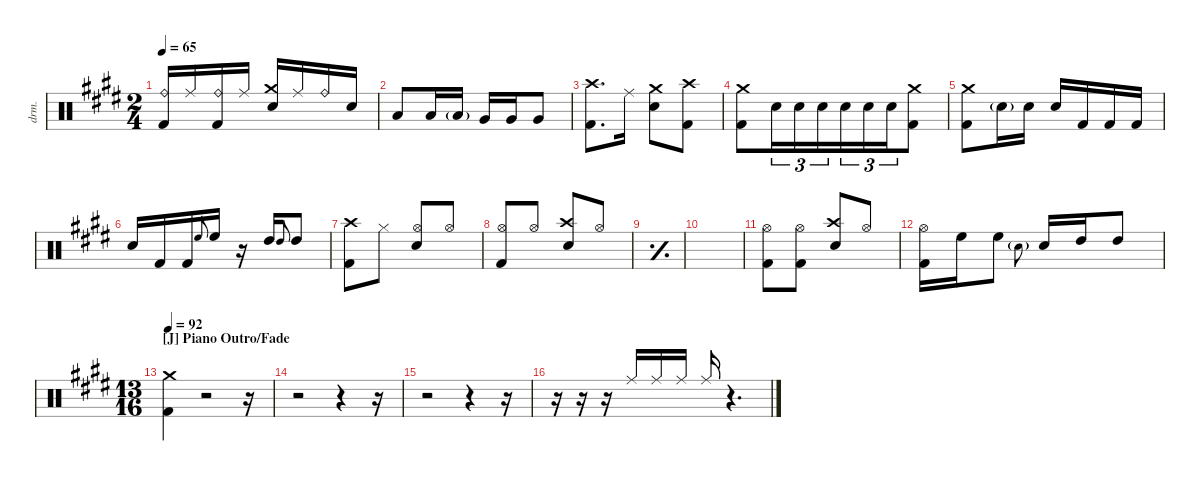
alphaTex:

\defaultSystemsLayout 4
\hideDynamics
\bracketExtendMode groupsimilarinstruments
\otherSystemsTrackNameOrientation horizontal
\chordDiagramsInScore
\track ("Drumkit" "drm.") {instrument percussion}
\staff {score}
\articulation defaults
\ts (2 4)
\tempo 65
\clef neutral
\ks e
("Ride (bell)"{acc forcenatural} "Kick (hit) 2"{acc forcenatural}).16{dy mf beam Up} "Ride (middle)"{acc forcenatural}.16{beam Up} ("Ride (bell)"{acc forcenatural} "Kick (hit) 2"{acc forcenatural}).16{beam Up} "Ride (middle)"{acc forcenatural}.16{beam Up} ("Crash medium (hit)"{acc forcenatural} "Snare (hit) 2"{acc forcenatural}).16{beam Up} "Ride (middle)"{acc forcenatural}.16{beam Up} "Ride (bell)"{acc forcenatural}.16{beam Up} "Snare (hit) 2"{acc forcenatural}.16{beam Up} |
"Low Tom (hit)"{acc forcenatural}.8 "Low Tom (hit)"{acc forcenatural}.16 "Low Tom (hit)"{g acc forcenatural}.16 "Very Low Tom (hit)"{acc forcenatural}.16 "Very Low Tom (hit)"{acc forcenatural}.16 "Very Low Tom (hit)"{acc forcenatural}.8 |
("Crash high (hit)"{acc forcenatural} "Kick (hit) 2"{acc forcenatural}).8{d} "Ride (middle)"{acc forcenatural}.16 ("Crash medium (hit)"{acc forcenatural} "Snare (hit) 2"{acc forcenatural}).8 ("Crash high (hit)"{acc forcenatural} "Kick (hit) 2"{acc forcenatural}).8 |
("Crash medium (hit)"{acc forcenatural} "Kick (hit) 2"{acc forcenatural}).8{beam merge} "Snare (hit) 2"{acc forcenatural}.16{tu (3 2) beam merge} "Snare (hit) 2"{acc forcenatural}.16{tu (3 2) beam merge} "Snare (hit) 2"{acc forcenatural}.16{tu (3 2) beam merge} "Snare (hit) 2"{acc forcenatural}.16{tu (3 2) beam merge} "Snare (hit) 2"{acc forcenatural}.16{tu (3 2) beam merge} "Snare (hit) 2"{acc forcenatural}.16{tu (3 2) beam merge} ("Kick (hit) 2"{acc forcenatural} "Crash medium (hit)"{acc forcenatural}).8 |
("Crash medium (hit)"{acc forcenatural} "Kick (hit) 2"{acc forcenatural}).8 "Snare (hit) 2"{g acc forcenatural}.16 "Snare (hit) 2"{acc forcenatural}.16 "Snare (hit) 2"{acc forcenatural}.16 "Kick (hit) 2"{acc forcenatural}.16 "Kick (hit) 2"{acc forcenatural}.16 "Kick (hit) 2"{acc forcenatural}.16 |
"Snare (hit) 2"{acc forcenatural}.16{beam Up} "Kick (hit) 2"{acc forcenatural}.16{beam Up} "Kick (hit) 2"{acc forcenatural}.16{beam Up} "High Floor Tom (hit)"{acc forcenatural}.8{gr onbeat} "High Floor Tom (hit)"{acc forcenatural}.16{beam Up} r.16 "High Tom (hit)"{acc forcenatural}.16{beam Up} "High Tom (hit)"{acc forcenatural}.8{gr onbeat} "High Tom (hit)"{acc forcenatural}.8{beam Up} |
("Crash high (hit)"{acc forcenatural} "Kick (hit) 2"{acc forcenatural}).8 "Hi-Hat (closed)"{acc forcenatural}.8 ("Hi-Hat (open)"{acc forcenatural} "Snare (hit) 2"{acc forcenatural}).8{beam Up} "Hi-Hat (open)"{acc forcenatural}.8{beam Up} |
("Hi-Hat (open)"{acc forcenatural} "Kick (hit) 2"{acc forcenatural}).8{beam Up} "Hi-Hat (open)"{acc forcenatural}.8{beam Up} ("Crash high (hit)"{acc forcenatural} "Snare (hit) 2"{acc forcenatural}).8{beam Up} "Hi-Hat (open)"{acc forcenatural}.8{beam Up} |
\simile simple
|
|
\simile none
("Hi-Hat (open)"{acc forcenatural} "Kick (hit) 2"{acc forcenatural}).8 ("Hi-Hat (open)"{acc forcenatural} "Kick (hit) 2"{acc forcenatural}).8 ("Crash high (hit)"{acc forcenatural} "Snare (hit) 2"{acc forcenatural}).8{beam Up} "Hi-Hat (open)"{acc forcenatural}.8{beam Up} |
("Hi-Hat (open)"{acc forcenatural} "Kick (hit) 2"{acc forcenatural}).16 "High Floor Tom (hit)"{acc forcenatural}.16 "High Floor Tom (hit)"{acc forcenatural}.8 "Snare (hit) 2"{g acc forcenatural}.8{gr onbeat beam Down} "Snare (hit) 2"{acc forcenatural}.16{beam Up} "High Tom (hit)"{acc forcenatural}.16{beam Up} "High Tom (hit)"{acc forcenatural}.8{beam Up} |
\ts (13 16)
\beaming (16 3 3 3 2 2)
\section ("J" "Piano Outro/Fade")
\tempo 92
("Crash medium (hit)"{acc forcenatural} "Kick (hit) 2"{acc forcenatural}).4 r.2 r.16 |
r.2 r.4 r.16 |
r.2 r.4 r.16 |
r.16 r.16 r.16 "Ride (middle)"{acc forcenatural}.16{beam Up} "Ride (middle)"{acc forcenatural}.16{beam Up} "Ride (middle)"{acc forcenatural}.16{beam Up} "Ride (middle)"{acc forcenatural}.16{beam Up} r.4{d}
